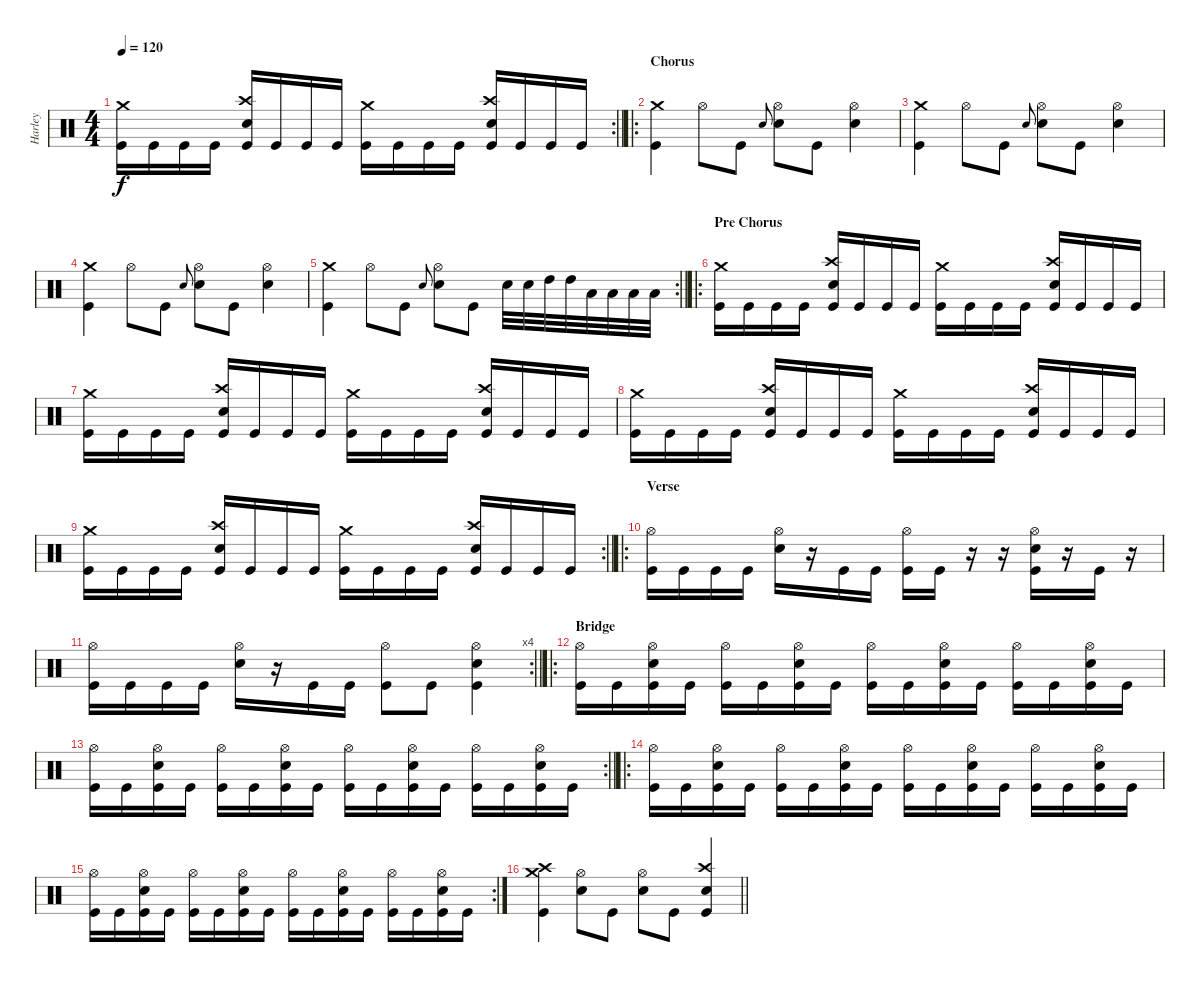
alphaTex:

\track ("Harley" "Harley") {instrument percussion}
\staff {score}
\articulation defaults
\rc 2
\ts (4 4)
\tempo 120
\clef neutral
\barLineRight lightlight
\ks c
("Crash medium (hit)" "Kick (hit)").16{dy f} "Kick (hit)".16 "Kick (hit)".16 "Kick (hit)".16 ("Crash high (hit)" "Snare (hit) 2" "Kick (hit)").16 "Kick (hit)".16 "Kick (hit)".16 "Kick (hit)".16 ("Crash medium (hit)" "Kick (hit)").16 "Kick (hit)".16 "Kick (hit)".16 "Kick (hit)".16 ("Crash high (hit)" "Snare (hit) 2" "Kick (hit)").16 "Kick (hit)".16 "Kick (hit)".16 "Kick (hit)".16 |
\ro
\section ("" "Chorus")
("Crash medium (hit)" "Kick (hit)").4 "Hi-Hat (open)".8 "Kick (hit)".8 "Snare (hit) 2".8{gr onbeat} ("Hi-Hat (open)" "Snare (hit) 2").8 "Kick (hit)".8 ("Hi-Hat (open)" "Snare (hit) 2").4 |
("Crash medium (hit)" "Kick (hit)").4 "Hi-Hat (open)".8 "Kick (hit)".8 "Snare (hit) 2".8{gr onbeat} ("Hi-Hat (open)" "Snare (hit) 2").8 "Kick (hit)".8 ("Hi-Hat (open)" "Snare (hit) 2").4 |
("Crash medium (hit)" "Kick (hit)").4 "Hi-Hat (open)".8 "Kick (hit)".8 "Snare (hit) 2".8{gr onbeat} ("Hi-Hat (open)" "Snare (hit) 2").8 "Kick (hit)".8 ("Hi-Hat (open)" "Snare (hit) 2").4 |
\rc 2
\barLineRight lightlight
("Crash medium (hit)" "Kick (hit)").4 "Hi-Hat (open)".8 "Kick (hit)".8 "Snare (hit) 2".8{gr onbeat} ("Hi-Hat (open)" "Snare (hit) 2").8 "Kick (hit)".8 "Snare (hit) 2".32 "Snare (hit) 2".32 "High Tom (hit)".32 "High Tom (hit)".32 "Low Tom (hit)".32 "Low Tom (hit)".32 "Low Floor Tom (hit)".32 "Low Floor Tom (hit)".32 |
\ro
\section ("" "Pre Chorus")
("Crash medium (hit)" "Kick (hit)").16 "Kick (hit)".16 "Kick (hit)".16 "Kick (hit)".16 ("Crash high (hit)" "Snare (hit) 2" "Kick (hit)").16 "Kick (hit)".16 "Kick (hit)".16 "Kick (hit)".16 ("Crash medium (hit)" "Kick (hit)").16 "Kick (hit)".16 "Kick (hit)".16 "Kick (hit)".16 ("Crash high (hit)" "Snare (hit) 2" "Kick (hit)").16 "Kick (hit)".16 "Kick (hit)".16 "Kick (hit)".16 |
("Crash medium (hit)" "Kick (hit)").16 "Kick (hit)".16 "Kick (hit)".16 "Kick (hit)".16 ("Crash high (hit)" "Snare (hit) 2" "Kick (hit)").16 "Kick (hit)".16 "Kick (hit)".16 "Kick (hit)".16 ("Crash medium (hit)" "Kick (hit)").16 "Kick (hit)".16 "Kick (hit)".16 "Kick (hit)".16 ("Crash high (hit)" "Snare (hit) 2" "Kick (hit)").16 "Kick (hit)".16 "Kick (hit)".16 "Kick (hit)".16 |
("Crash medium (hit)" "Kick (hit)").16 "Kick (hit)".16 "Kick (hit)".16 "Kick (hit)".16 ("Crash high (hit)" "Snare (hit) 2" "Kick (hit)").16 "Kick (hit)".16 "Kick (hit)".16 "Kick (hit)".16 ("Crash medium (hit)" "Kick (hit)").16 "Kick (hit)".16 "Kick (hit)".16 "Kick (hit)".16 ("Crash high (hit)" "Snare (hit) 2" "Kick (hit)").16 "Kick (hit)".16 "Kick (hit)".16 "Kick (hit)".16 |
\rc 2
\barLineRight lightlight
("Crash medium (hit)" "Kick (hit)").16 "Kick (hit)".16 "Kick (hit)".16 "Kick (hit)".16 ("Crash high (hit)" "Snare (hit) 2" "Kick (hit)").16 "Kick (hit)".16 "Kick (hit)".16 "Kick (hit)".16 ("Crash medium (hit)" "Kick (hit)").16 "Kick (hit)".16 "Kick (hit)".16 "Kick (hit)".16 ("Crash high (hit)" "Snare (hit) 2" "Kick (hit)").16 "Kick (hit)".16 "Kick (hit)".16 "Kick (hit)".16 |
\ro
\section ("" "Verse")
("Hi-Hat (open)" "Kick (hit)").16 "Kick (hit)".16 "Kick (hit)".16 "Kick (hit)".16 ("Hi-Hat (open)" "Snare (hit) 2").16 r.16 "Kick (hit)".16 "Kick (hit)".16 ("Hi-Hat (open)" "Kick (hit)").16 "Kick (hit)".16 r.16 r.16 ("Hi-Hat (open)" "Snare (hit) 2" "Kick (hit)").16 r.16 "Kick (hit)".16 r.16 |
\rc 4
\barLineRight lightlight
("Hi-Hat (open)" "Kick (hit)").16 "Kick (hit)".16 "Kick (hit)".16 "Kick (hit)".16 ("Hi-Hat (open)" "Snare (hit) 2").16 r.16 "Kick (hit)".16 "Kick (hit)".16 ("Hi-Hat (open)" "Kick (hit)").8 "Kick (hit)".8 ("Hi-Hat (open)" "Snare (hit) 2" "Kick (hit)").4 |
\ro
\section ("" "Bridge")
("Hi-Hat (open)" "Kick (hit)").16 "Kick (hit)".16 ("Hi-Hat (open)" "Snare (hit) 2" "Kick (hit)").16 "Kick (hit)".16 ("Hi-Hat (open)" "Kick (hit)").16 "Kick (hit)".16 ("Hi-Hat (open)" "Snare (hit) 2" "Kick (hit)").16 "Kick (hit)".16 ("Hi-Hat (open)" "Kick (hit)").16 "Kick (hit)".16 ("Hi-Hat (open)" "Snare (hit) 2" "Kick (hit)").16 "Kick (hit)".16 ("Hi-Hat (open)" "Kick (hit)").16 "Kick (hit)".16 ("Hi-Hat (open)" "Snare (hit) 2" "Kick (hit)").16 "Kick (hit)".16 |
\rc 2
\barLineRight lightlight
("Hi-Hat (open)" "Kick (hit)").16 "Kick (hit)".16 ("Hi-Hat (open)" "Snare (hit) 2" "Kick (hit)").16 "Kick (hit)".16 ("Hi-Hat (open)" "Kick (hit)").16 "Kick (hit)".16 ("Hi-Hat (open)" "Snare (hit) 2" "Kick (hit)").16 "Kick (hit)".16 ("Hi-Hat (open)" "Kick (hit)").16 "Kick (hit)".16 ("Hi-Hat (open)" "Snare (hit) 2" "Kick (hit)").16 "Kick (hit)".16 ("Hi-Hat (open)" "Kick (hit)").16 "Kick (hit)".16 ("Hi-Hat (open)" "Snare (hit) 2" "Kick (hit)").16 "Kick (hit)".16 |
\ro
\section ("" "")
("Hi-Hat (open)" "Kick (hit)").16 "Kick (hit)".16 ("Hi-Hat (open)" "Snare (hit) 2" "Kick (hit)").16 "Kick (hit)".16 ("Hi-Hat (open)" "Kick (hit)").16 "Kick (hit)".16 ("Hi-Hat (open)" "Snare (hit) 2" "Kick (hit)").16 "Kick (hit)".16 ("Hi-Hat (open)" "Kick (hit)").16 "Kick (hit)".16 ("Hi-Hat (open)" "Snare (hit) 2" "Kick (hit)").16 "Kick (hit)".16 ("Hi-Hat (open)" "Kick (hit)").16 "Kick (hit)".16 ("Hi-Hat (open)" "Snare (hit) 2" "Kick (hit)").16 "Kick (hit)".16 |
\rc 2
("Hi-Hat (open)" "Kick (hit)").16 "Kick (hit)".16 ("Hi-Hat (open)" "Snare (hit) 2" "Kick (hit)").16 "Kick (hit)".16 ("Hi-Hat (open)" "Kick (hit)").16 "Kick (hit)".16 ("Hi-Hat (open)" "Snare (hit) 2" "Kick (hit)").16 "Kick (hit)".16 ("Hi-Hat (open)" "Kick (hit)").16 "Kick (hit)".16 ("Hi-Hat (open)" "Snare (hit) 2" "Kick (hit)").16 "Kick (hit)".16 ("Hi-Hat (open)" "Kick (hit)").16 "Kick (hit)".16 ("Hi-Hat (open)" "Snare (hit) 2" "Kick (hit)").16 "Kick (hit)".16 |
\barLineRight lightlight
("Crash medium (hit)" "Crash high (hit)" "Kick (hit)").4 ("Hi-Hat (open)" "Snare (hit) 2").8 "Kick (hit)".8 ("Hi-Hat (open)" "Snare (hit) 2").8 "Kick (hit)".8 ("Crash high (hit)" "Snare (hit) 2" "Kick (hit)").4
